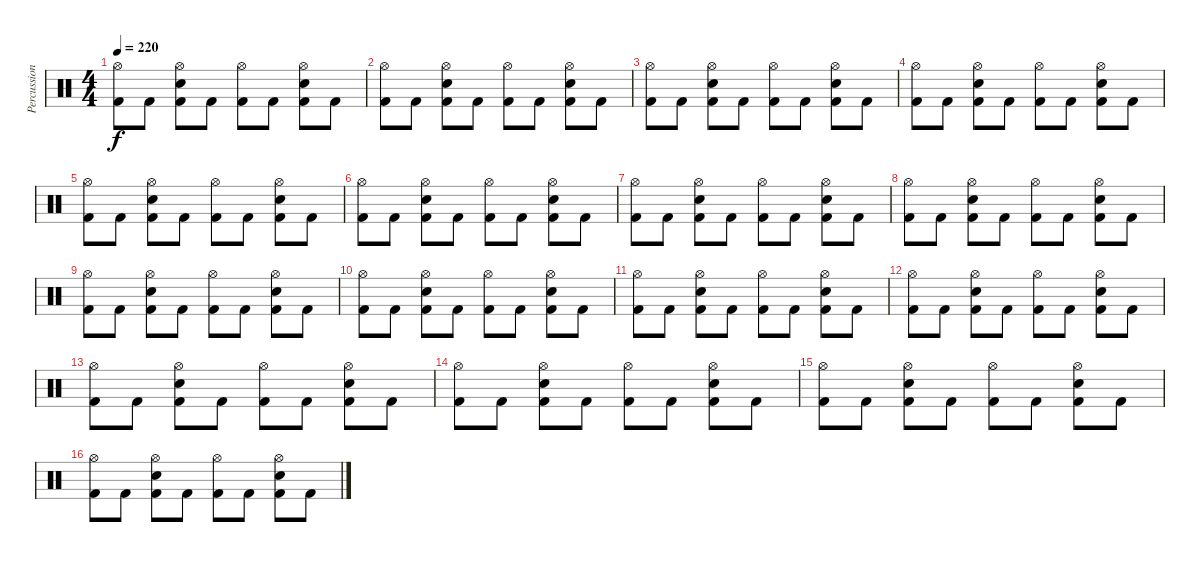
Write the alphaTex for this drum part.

\track ("Percussion" "Percussion") {instrument percussion}
\staff {score}
\articulation defaults
\ts (4 4)
\tempo 220
\clef neutral
\ks c
("Hi-Hat (open)" "Kick (hit) 2").8{dy f} "Kick (hit) 2".8 ("Snare (hit) 2" "Hi-Hat (open)" "Kick (hit) 2").8 "Kick (hit) 2".8 ("Hi-Hat (open)" "Kick (hit) 2").8 "Kick (hit) 2".8 ("Snare (hit) 2" "Hi-Hat (open)" "Kick (hit) 2").8 "Kick (hit) 2".8 |
("Hi-Hat (open)" "Kick (hit) 2").8 "Kick (hit) 2".8 ("Snare (hit) 2" "Hi-Hat (open)" "Kick (hit) 2").8 "Kick (hit) 2".8 ("Hi-Hat (open)" "Kick (hit) 2").8 "Kick (hit) 2".8 ("Snare (hit) 2" "Hi-Hat (open)" "Kick (hit) 2").8 "Kick (hit) 2".8 |
("Hi-Hat (open)" "Kick (hit) 2").8 "Kick (hit) 2".8 ("Snare (hit) 2" "Hi-Hat (open)" "Kick (hit) 2").8 "Kick (hit) 2".8 ("Hi-Hat (open)" "Kick (hit) 2").8 "Kick (hit) 2".8 ("Snare (hit) 2" "Hi-Hat (open)" "Kick (hit) 2").8 "Kick (hit) 2".8 |
("Hi-Hat (open)" "Kick (hit) 2").8 "Kick (hit) 2".8 ("Snare (hit) 2" "Hi-Hat (open)" "Kick (hit) 2").8 "Kick (hit) 2".8 ("Hi-Hat (open)" "Kick (hit) 2").8 "Kick (hit) 2".8 ("Snare (hit) 2" "Hi-Hat (open)" "Kick (hit) 2").8 "Kick (hit) 2".8 |
("Hi-Hat (open)" "Kick (hit) 2").8 "Kick (hit) 2".8 ("Snare (hit) 2" "Hi-Hat (open)" "Kick (hit) 2").8 "Kick (hit) 2".8 ("Hi-Hat (open)" "Kick (hit) 2").8 "Kick (hit) 2".8 ("Snare (hit) 2" "Hi-Hat (open)" "Kick (hit) 2").8 "Kick (hit) 2".8 |
("Hi-Hat (open)" "Kick (hit) 2").8 "Kick (hit) 2".8 ("Snare (hit) 2" "Hi-Hat (open)" "Kick (hit) 2").8 "Kick (hit) 2".8 ("Hi-Hat (open)" "Kick (hit) 2").8 "Kick (hit) 2".8 ("Snare (hit) 2" "Hi-Hat (open)" "Kick (hit) 2").8 "Kick (hit) 2".8 |
("Hi-Hat (open)" "Kick (hit) 2").8 "Kick (hit) 2".8 ("Snare (hit) 2" "Hi-Hat (open)" "Kick (hit) 2").8 "Kick (hit) 2".8 ("Hi-Hat (open)" "Kick (hit) 2").8 "Kick (hit) 2".8 ("Snare (hit) 2" "Hi-Hat (open)" "Kick (hit) 2").8 "Kick (hit) 2".8 |
("Hi-Hat (open)" "Kick (hit) 2").8 "Kick (hit) 2".8 ("Snare (hit) 2" "Hi-Hat (open)" "Kick (hit) 2").8 "Kick (hit) 2".8 ("Hi-Hat (open)" "Kick (hit) 2").8 "Kick (hit) 2".8 ("Snare (hit) 2" "Hi-Hat (open)" "Kick (hit) 2").8 "Kick (hit) 2".8 |
("Hi-Hat (open)" "Kick (hit) 2").8 "Kick (hit) 2".8 ("Snare (hit) 2" "Hi-Hat (open)" "Kick (hit) 2").8 "Kick (hit) 2".8 ("Hi-Hat (open)" "Kick (hit) 2").8 "Kick (hit) 2".8 ("Snare (hit) 2" "Hi-Hat (open)" "Kick (hit) 2").8 "Kick (hit) 2".8 |
("Hi-Hat (open)" "Kick (hit) 2").8 "Kick (hit) 2".8 ("Snare (hit) 2" "Hi-Hat (open)" "Kick (hit) 2").8 "Kick (hit) 2".8 ("Hi-Hat (open)" "Kick (hit) 2").8 "Kick (hit) 2".8 ("Snare (hit) 2" "Hi-Hat (open)" "Kick (hit) 2").8 "Kick (hit) 2".8 |
("Hi-Hat (open)" "Kick (hit) 2").8 "Kick (hit) 2".8 ("Snare (hit) 2" "Hi-Hat (open)" "Kick (hit) 2").8 "Kick (hit) 2".8 ("Hi-Hat (open)" "Kick (hit) 2").8 "Kick (hit) 2".8 ("Snare (hit) 2" "Hi-Hat (open)" "Kick (hit) 2").8 "Kick (hit) 2".8 |
("Hi-Hat (open)" "Kick (hit) 2").8 "Kick (hit) 2".8 ("Snare (hit) 2" "Hi-Hat (open)" "Kick (hit) 2").8 "Kick (hit) 2".8 ("Hi-Hat (open)" "Kick (hit) 2").8 "Kick (hit) 2".8 ("Snare (hit) 2" "Hi-Hat (open)" "Kick (hit) 2").8 "Kick (hit) 2".8 |
("Hi-Hat (open)" "Kick (hit) 2").8 "Kick (hit) 2".8 ("Snare (hit) 2" "Hi-Hat (open)" "Kick (hit) 2").8 "Kick (hit) 2".8 ("Hi-Hat (open)" "Kick (hit) 2").8 "Kick (hit) 2".8 ("Snare (hit) 2" "Hi-Hat (open)" "Kick (hit) 2").8 "Kick (hit) 2".8 |
("Hi-Hat (open)" "Kick (hit) 2").8 "Kick (hit) 2".8 ("Snare (hit) 2" "Hi-Hat (open)" "Kick (hit) 2").8 "Kick (hit) 2".8 ("Hi-Hat (open)" "Kick (hit) 2").8 "Kick (hit) 2".8 ("Snare (hit) 2" "Hi-Hat (open)" "Kick (hit) 2").8 "Kick (hit) 2".8 |
("Hi-Hat (open)" "Kick (hit) 2").8 "Kick (hit) 2".8 ("Snare (hit) 2" "Hi-Hat (open)" "Kick (hit) 2").8 "Kick (hit) 2".8 ("Hi-Hat (open)" "Kick (hit) 2").8 "Kick (hit) 2".8 ("Snare (hit) 2" "Hi-Hat (open)" "Kick (hit) 2").8 "Kick (hit) 2".8 |
("Hi-Hat (open)" "Kick (hit) 2").8 "Kick (hit) 2".8 ("Snare (hit) 2" "Hi-Hat (open)" "Kick (hit) 2").8 "Kick (hit) 2".8 ("Hi-Hat (open)" "Kick (hit) 2").8 "Kick (hit) 2".8 ("Snare (hit) 2" "Hi-Hat (open)" "Kick (hit) 2").8 "Kick (hit) 2".8
